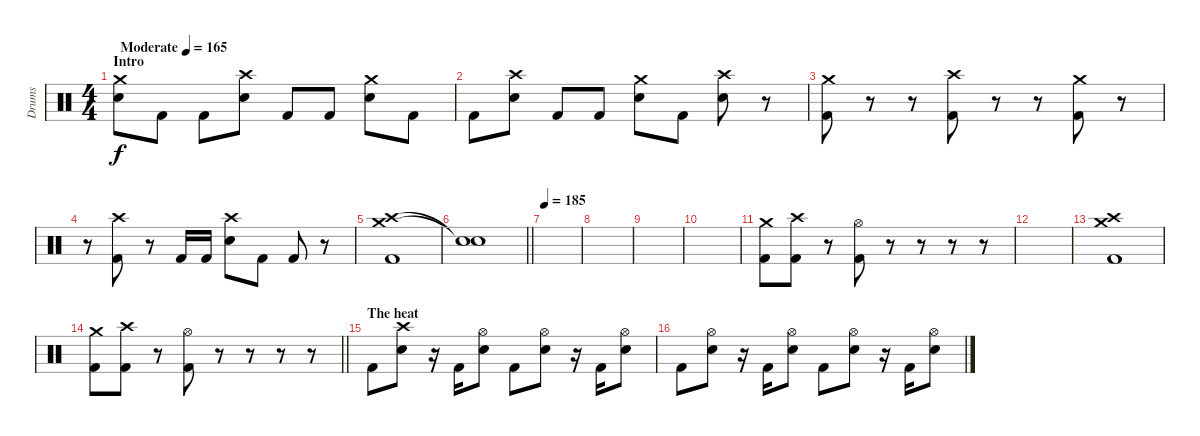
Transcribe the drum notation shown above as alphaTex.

\track ("Drums" "Drums") {instrument percussion}
\staff {score}
\articulation defaults
\ts (4 4)
\section ("" "Intro")
\tempo (165 "Moderate")
\clef neutral
\ks c
("Crash medium (hit)" "Electric Snare (hit)").8{dy f} "Kick (hit) 2".8 "Kick (hit) 2".8 ("Crash high (hit)" "Electric Snare (hit)").8 "Kick (hit) 2".8 "Kick (hit) 2".8 ("Crash medium (hit)" "Electric Snare (hit)").8 "Kick (hit) 2".8 |
"Kick (hit) 2".8 ("Crash high (hit)" "Electric Snare (hit)").8 "Kick (hit) 2".8 "Kick (hit) 2".8 ("Crash medium (hit)" "Electric Snare (hit)").8 "Kick (hit) 2".8 ("Crash high (hit)" "Electric Snare (hit)").8 r.8 |
("Crash medium (hit)" "Kick (hit) 2").8 r.8 r.8 ("Crash high (hit)" "Kick (hit) 2").8 r.8 r.8 ("Crash medium (hit)" "Kick (hit) 2").8 r.8 |
r.8 ("Crash high (hit)" "Kick (hit) 2").8 r.8 "Kick (hit) 2".16 "Kick (hit) 2".16 ("Crash high (hit)" "Electric Snare (hit)").8 "Kick (hit) 2".8 "Kick (hit) 2".8 r.8 |
("Crash medium (hit)" "Crash high (hit)" "Kick (hit) 2").1 |
\barLineRight lightlight
("Snare (hit)"{t} "Snare (hit)"{t}).1 |
\tempo 185
|
|
|
|
("Crash medium (hit)" "Kick (hit) 2").8 ("Crash high (hit)" "Kick (hit) 2").8 r.8 ("Hi-Hat (open)" "Kick (hit) 2").8 r.8{volume 0} r.8 r.8 r.8 |
|
("Crash medium (hit)" "Crash high (hit)" "Kick (hit) 2").1{volume 14} |
\barLineRight lightlight
("Crash medium (hit)" "Kick (hit) 2").8 ("Crash high (hit)" "Kick (hit) 2").8 r.8 ("Hi-Hat (open)" "Kick (hit) 2").8 r.8{volume 0} r.8 r.8 r.8 |
\section ("" "The heat")
"Kick (hit) 2".8{volume 14} ("Crash high (hit)" "Electric Snare (hit)").8 r.16 "Kick (hit) 2".16 ("Hi-Hat (open)" "Electric Snare (hit)").8 "Kick (hit) 2".8 ("Hi-Hat (open)" "Electric Snare (hit)").8 r.16 "Kick (hit) 2".16 ("Hi-Hat (open)" "Electric Snare (hit)").8 |
"Kick (hit) 2".8 ("Hi-Hat (open)" "Electric Snare (hit)").8 r.16 "Kick (hit) 2".16 ("Hi-Hat (open)" "Electric Snare (hit)").8 "Kick (hit) 2".8 ("Hi-Hat (open)" "Electric Snare (hit)").8 r.16 "Kick (hit) 2".16 ("Hi-Hat (open)" "Electric Snare (hit)").8
